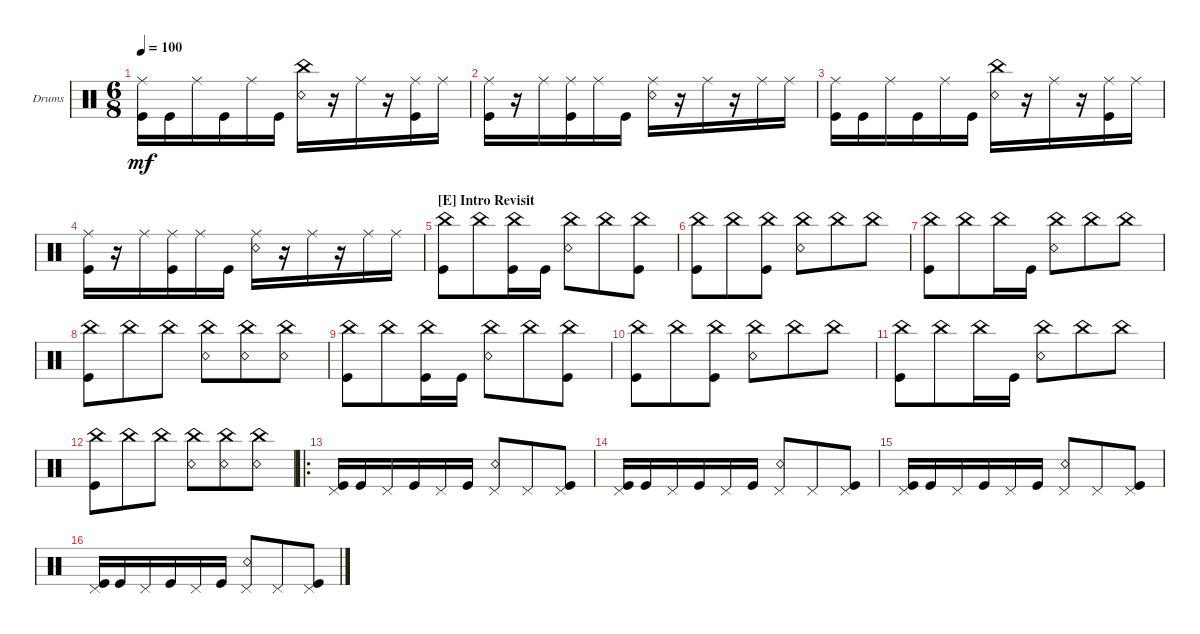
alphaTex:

\defaultSystemsLayout 4
\bracketExtendMode groupsimilarinstruments
\firstSystemTrackNameOrientation horizontal
\otherSystemsTrackNameOrientation horizontal
\track ("Drumkit" "Drums") {instrument percussion}
\staff {score}
\articulation defaults
\ts (6 8)
\tempo 100
\clef neutral
\ks aminor
("Ride (middle)" "Kick (hit)").16{dy mf} "Kick (hit)".16 "Ride (middle)".16 "Kick (hit)".16 "Ride (middle)".16 "Kick (hit)".16 ("Snare (rim shot)" "China (hit)").16 r.16 "Ride (middle)".16 r.16 ("Ride (middle)" "Kick (hit)").16 "Ride (middle)".16 |
("Ride (middle)" "Kick (hit)").16 r.16 "Ride (middle)".16 ("Ride (middle)" "Kick (hit)").16 "Ride (middle)".16 "Kick (hit)".16 ("Ride (middle)" "Snare (rim shot)").16 r.16 "Ride (middle)".16 r.16 "Ride (middle)".16 "Ride (middle)".16 |
("Ride (middle)" "Kick (hit)").16 "Kick (hit)".16 "Ride (middle)".16 "Kick (hit)".16 "Ride (middle)".16 "Kick (hit)".16 ("Snare (rim shot)" "China (hit)").16 r.16 "Ride (middle)".16 r.16 ("Ride (middle)" "Kick (hit)").16 "Ride (middle)".16 |
("Ride (middle)" "Kick (hit)").16 r.16 "Ride (middle)".16 ("Ride (middle)" "Kick (hit)").16 "Ride (middle)".16 "Kick (hit)".16 ("Ride (middle)" "Snare (rim shot)").16 r.16 "Ride (middle)".16 r.16 "Ride (middle)".16 "Ride (middle)".16 |
\section ("E" "Intro Revisit")
("Kick (hit)" "China (hit)").8 "China (hit)".8 ("China (hit)" "Kick (hit)").16 "Kick (hit)".16 ("Snare (rim shot)" "China (hit)").8 "China (hit)".8 ("China (hit)" "Kick (hit)").8 |
("Kick (hit)" "China (hit)").8 "China (hit)".8 ("China (hit)" "Kick (hit)").8 ("Snare (rim shot)" "China (hit)").8 "China (hit)".8 "China (hit)".8 |
("Kick (hit)" "China (hit)").8 "China (hit)".8 "China (hit)".16 "Kick (hit)".16 ("Snare (rim shot)" "China (hit)").8 "China (hit)".8 "China (hit)".8 |
("Kick (hit)" "China (hit)").8 "China (hit)".8 "China (hit)".8 ("Snare (rim shot)" "China (hit)").8 ("China (hit)" "Snare (rim shot)").8 ("China (hit)" "Snare (rim shot)").8 |
("Kick (hit)" "China (hit)").8 "China (hit)".8 ("China (hit)" "Kick (hit)").16 "Kick (hit)".16 ("Snare (rim shot)" "China (hit)").8 "China (hit)".8 ("China (hit)" "Kick (hit)").8 |
("Kick (hit)" "China (hit)").8 "China (hit)".8 ("China (hit)" "Kick (hit)").8 ("Snare (rim shot)" "China (hit)").8 "China (hit)".8 "China (hit)".8 |
("Kick (hit)" "China (hit)").8 "China (hit)".8 "China (hit)".16 "Kick (hit)".16 ("Snare (rim shot)" "China (hit)").8 "China (hit)".8 "China (hit)".8 |
("Kick (hit)" "China (hit)").8 "China (hit)".8 "China (hit)".8 ("Snare (rim shot)" "China (hit)").8 ("China (hit)" "Snare (rim shot)").8 ("China (hit)" "Snare (rim shot)").8 |
\ro
("Pedal Hi-Hat (hit)" "Kick (hit)").16 "Kick (hit)".16 "Pedal Hi-Hat (hit)".16 "Kick (hit)".16 "Pedal Hi-Hat (hit)".16 "Kick (hit)".16 ("Pedal Hi-Hat (hit)" "Snare (rim shot)").8 "Pedal Hi-Hat (hit)".8 ("Pedal Hi-Hat (hit)" "Kick (hit)").8 |
("Pedal Hi-Hat (hit)" "Kick (hit)").16 "Kick (hit)".16 "Pedal Hi-Hat (hit)".16 "Kick (hit)".16 "Pedal Hi-Hat (hit)".16 "Kick (hit)".16 ("Pedal Hi-Hat (hit)" "Snare (rim shot)").8 "Pedal Hi-Hat (hit)".8 ("Pedal Hi-Hat (hit)" "Kick (hit)").8 |
("Pedal Hi-Hat (hit)" "Kick (hit)").16 "Kick (hit)".16 "Pedal Hi-Hat (hit)".16 "Kick (hit)".16 "Pedal Hi-Hat (hit)".16 "Kick (hit)".16 ("Pedal Hi-Hat (hit)" "Snare (rim shot)").8 "Pedal Hi-Hat (hit)".8 ("Pedal Hi-Hat (hit)" "Kick (hit)").8 |
("Pedal Hi-Hat (hit)" "Kick (hit)").16 "Kick (hit)".16 "Pedal Hi-Hat (hit)".16 "Kick (hit)".16 "Pedal Hi-Hat (hit)".16 "Kick (hit)".16 ("Pedal Hi-Hat (hit)" "Snare (rim shot)").8 "Pedal Hi-Hat (hit)".8 ("Pedal Hi-Hat (hit)" "Kick (hit)").8
